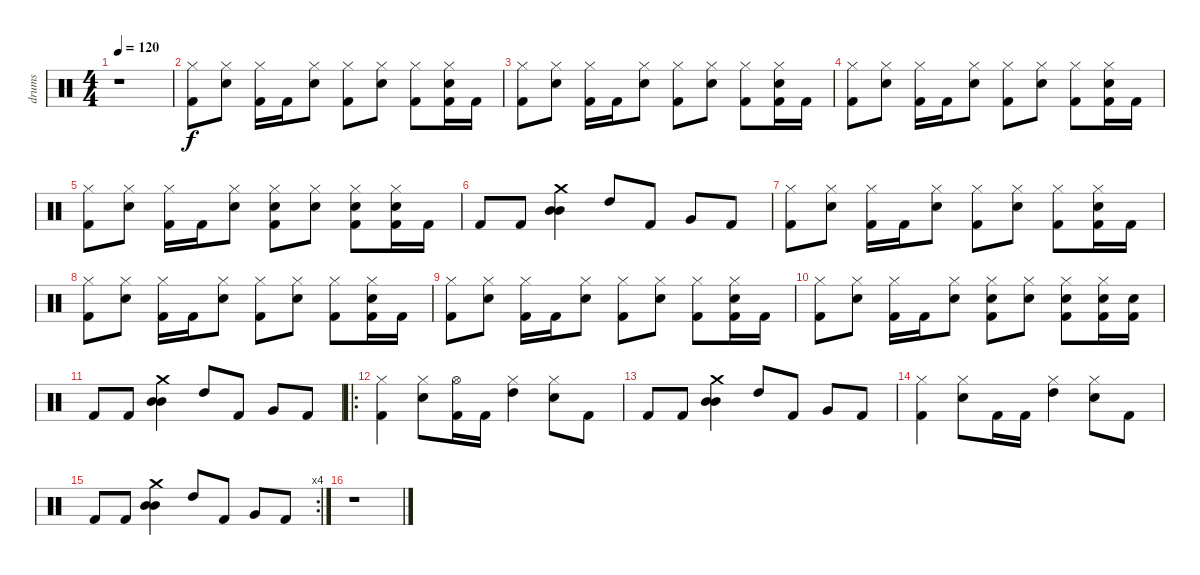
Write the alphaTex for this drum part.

\track ("drums" "drums") {instrument percussion}
\staff {score}
\articulation defaults
\ts (4 4)
\tempo 120
\clef neutral
\ks c
r.1{dy f} |
("Hi-Hat (closed)" "Kick (hit) 2").8 ("Hi-Hat (closed)" "Electric Snare (hit)").8 ("Hi-Hat (closed)" "Kick (hit) 2").16 "Kick (hit) 2".16 ("Hi-Hat (closed)" "Electric Snare (hit)").8 ("Hi-Hat (closed)" "Kick (hit) 2").8 ("Hi-Hat (closed)" "Electric Snare (hit)").8 ("Hi-Hat (closed)" "Kick (hit) 2").8 ("Hi-Hat (closed)" "Electric Snare (hit)" "Kick (hit) 2").16 "Kick (hit) 2".16 |
("Hi-Hat (closed)" "Kick (hit) 2").8 ("Hi-Hat (closed)" "Electric Snare (hit)").8 ("Hi-Hat (closed)" "Kick (hit) 2").16 "Kick (hit) 2".16 ("Hi-Hat (closed)" "Electric Snare (hit)").8 ("Hi-Hat (closed)" "Kick (hit) 2").8 ("Hi-Hat (closed)" "Electric Snare (hit)").8 ("Hi-Hat (closed)" "Kick (hit) 2").8 ("Hi-Hat (closed)" "Electric Snare (hit)" "Kick (hit) 2").16 "Kick (hit) 2".16 |
("Hi-Hat (closed)" "Kick (hit) 2").8 ("Hi-Hat (closed)" "Electric Snare (hit)").8 ("Hi-Hat (closed)" "Kick (hit) 2").16 "Kick (hit) 2".16 ("Hi-Hat (closed)" "Electric Snare (hit)").8 ("Hi-Hat (closed)" "Kick (hit) 2").8 ("Hi-Hat (closed)" "Electric Snare (hit)").8 ("Hi-Hat (closed)" "Kick (hit) 2").8 ("Hi-Hat (closed)" "Electric Snare (hit)" "Kick (hit) 2").16 "Kick (hit) 2".16 |
("Hi-Hat (closed)" "Kick (hit) 2").8 ("Hi-Hat (closed)" "Electric Snare (hit)").8 ("Hi-Hat (closed)" "Kick (hit) 2").16 "Kick (hit) 2".16 ("Hi-Hat (closed)" "Electric Snare (hit)").8 ("Hi-Hat (closed)" "Electric Snare (hit)" "Kick (hit) 2").8 ("Hi-Hat (closed)" "Electric Snare (hit)").8 ("Hi-Hat (closed)" "Electric Snare (hit)" "Kick (hit) 2").8 ("Hi-Hat (closed)" "Electric Snare (hit)" "Kick (hit) 2").16 "Kick (hit) 2".16 |
"Kick (hit) 2".8 "Kick (hit) 2".8 ("Mid Tom (hit)" "Mid Tom (hit)" "Crash medium (hit)").4 "High Tom (hit)".8 "Kick (hit) 2".8 "Very Low Tom (hit)".8 "Kick (hit) 2".8 |
("Hi-Hat (closed)" "Kick (hit) 2").8 ("Hi-Hat (closed)" "Electric Snare (hit)").8 ("Hi-Hat (closed)" "Kick (hit) 2").16 "Kick (hit) 2".16 ("Hi-Hat (closed)" "Electric Snare (hit)").8 ("Hi-Hat (closed)" "Kick (hit) 2").8 ("Hi-Hat (closed)" "Electric Snare (hit)").8 ("Hi-Hat (closed)" "Kick (hit) 2").8 ("Hi-Hat (closed)" "Electric Snare (hit)" "Kick (hit) 2").16 "Kick (hit) 2".16 |
("Hi-Hat (closed)" "Kick (hit) 2").8 ("Hi-Hat (closed)" "Electric Snare (hit)").8 ("Hi-Hat (closed)" "Kick (hit) 2").16 "Kick (hit) 2".16 ("Hi-Hat (closed)" "Electric Snare (hit)").8 ("Hi-Hat (closed)" "Kick (hit) 2").8 ("Hi-Hat (closed)" "Electric Snare (hit)").8 ("Hi-Hat (closed)" "Kick (hit) 2").8 ("Hi-Hat (closed)" "Electric Snare (hit)" "Kick (hit) 2").16 "Kick (hit) 2".16 |
("Hi-Hat (closed)" "Kick (hit) 2").8 ("Hi-Hat (closed)" "Electric Snare (hit)").8 ("Hi-Hat (closed)" "Kick (hit) 2").16 "Kick (hit) 2".16 ("Hi-Hat (closed)" "Electric Snare (hit)").8 ("Hi-Hat (closed)" "Kick (hit) 2").8 ("Hi-Hat (closed)" "Electric Snare (hit)").8 ("Hi-Hat (closed)" "Kick (hit) 2").8 ("Hi-Hat (closed)" "Electric Snare (hit)" "Kick (hit) 2").16 "Kick (hit) 2".16 |
("Hi-Hat (closed)" "Kick (hit) 2").8 ("Hi-Hat (closed)" "Electric Snare (hit)").8 ("Hi-Hat (closed)" "Kick (hit) 2").16 "Kick (hit) 2".16 ("Hi-Hat (closed)" "Electric Snare (hit)").8 ("Hi-Hat (closed)" "Electric Snare (hit)" "Kick (hit) 2").8 ("Hi-Hat (closed)" "Electric Snare (hit)").8 ("Hi-Hat (closed)" "Electric Snare (hit)" "Kick (hit) 2").8 ("Hi-Hat (closed)" "Electric Snare (hit)" "Kick (hit) 2").16 ("Electric Snare (hit)" "Kick (hit) 2").16 |
"Kick (hit) 2".8 "Kick (hit) 2".8 ("Mid Tom (hit)" "Mid Tom (hit)" "Crash medium (hit)").4 "High Tom (hit)".8 "Kick (hit) 2".8 "Very Low Tom (hit)".8 "Kick (hit) 2".8 |
\ro
("Hi-Hat (closed)" "Kick (hit) 2").4 ("Hi-Hat (closed)" "Electric Snare (hit)").8 ("Hi-Hat (open)" "Kick (hit) 2").16 "Kick (hit) 2".16 ("Hi-Hat (closed)" "High Tom (hit)").4 ("Hi-Hat (closed)" "Electric Snare (hit)").8 "Kick (hit) 2".8 |
"Kick (hit) 2".8 "Kick (hit) 2".8 ("Mid Tom (hit)" "Mid Tom (hit)" "Crash medium (hit)").4 "High Tom (hit)".8 "Kick (hit) 2".8 "Very Low Tom (hit)".8 "Kick (hit) 2".8 |
("Hi-Hat (closed)" "Kick (hit) 2").4 ("Hi-Hat (closed)" "Electric Snare (hit)").8 "Kick (hit) 2".16 "Kick (hit) 2".16 ("Hi-Hat (closed)" "High Tom (hit)").4 ("Hi-Hat (closed)" "Electric Snare (hit)").8 "Kick (hit) 2".8 |
\rc 4 "Kick (hit) 2".8 "Kick (hit) 2".8
("Mid Tom (hit)" "Mid Tom (hit)" "Crash medium (hit)").4 "High Tom (hit)".8 "Kick (hit) 2".8 "Very Low Tom (hit)".8 "Kick (hit) 2".8 |
r.1
